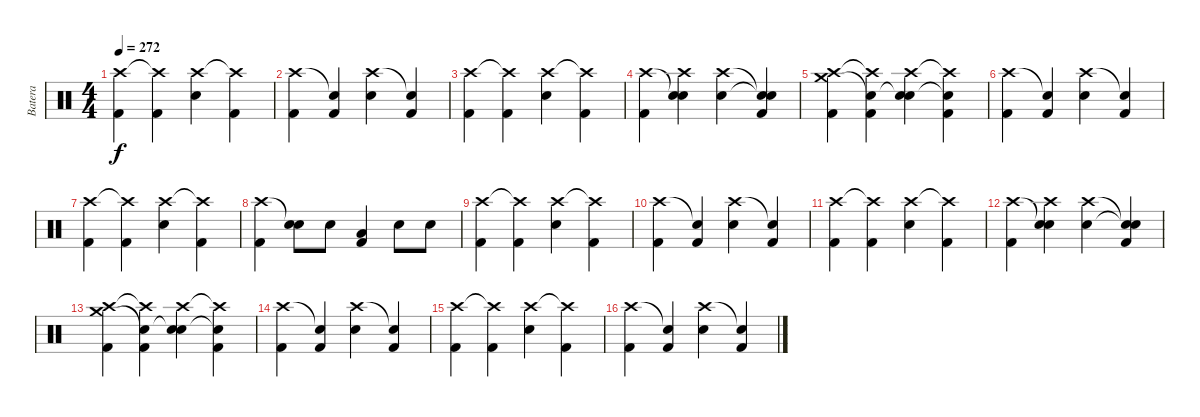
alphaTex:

\track ("Batera" "Batera") {instrument percussion}
\staff {score}
\articulation defaults
\ts (4 4)
\tempo 272
\clef neutral
\ks c
("Crash high (hit)" "Kick (hit) 2").4{dy f} ("Crash high (hit)"{t} "Kick (hit) 2").4 ("Crash high (hit)" "Electric Snare (hit)").4 ("Crash high (hit)"{t} "Kick (hit) 2").4 |
("Crash high (hit)" "Kick (hit) 2").4 ("Snare (hit)"{t} "Kick (hit) 2").4 ("Crash high (hit)" "Electric Snare (hit)").4 ("Snare (hit)"{t} "Kick (hit) 2").4 |
("Crash high (hit)" "Kick (hit) 2").4 ("Crash high (hit)"{t} "Kick (hit) 2").4 ("Crash high (hit)" "Electric Snare (hit)").4 ("Crash high (hit)"{t} "Kick (hit) 2").4 |
("Crash high (hit)" "Kick (hit) 2").4 ("Snare (hit)"{t} "Crash high (hit)" "Electric Snare (hit)").4 ("Crash high (hit)" "Electric Snare (hit)").4 ("Snare (hit)"{t} "Snare (hit)"{t} "Kick (hit) 2").4 |
("Crash high (hit)" "Crash medium (hit)" "Kick (hit) 2").4 ("Crash high (hit)"{t} "Snare (hit)"{t} "Kick (hit) 2").4 ("Crash high (hit)" "Snare (hit)"{t} "Electric Snare (hit)").4 ("Crash high (hit)"{t} "Snare (hit)"{t} "Kick (hit) 2").4 |
("Crash high (hit)" "Kick (hit) 2").4 ("Snare (hit)"{t} "Kick (hit) 2").4 ("Crash high (hit)" "Electric Snare (hit)").4 ("Snare (hit)"{t} "Kick (hit) 2").4 |
("Crash high (hit)" "Kick (hit) 2").4 ("Crash high (hit)"{t} "Kick (hit) 2").4 ("Crash high (hit)" "Electric Snare (hit)").4 ("Crash high (hit)"{t} "Kick (hit) 2").4 |
("Crash high (hit)" "Kick (hit) 2").4 ("Snare (hit)"{t} "Electric Snare (hit)").8 "Electric Snare (hit)".8 ("Low Floor Tom (hit)" "Kick (hit) 2").4 "Electric Snare (hit)".8 "Electric Snare (hit)".8 |
("Crash high (hit)" "Kick (hit) 2").4 ("Crash high (hit)"{t} "Kick (hit) 2").4 ("Crash high (hit)" "Electric Snare (hit)").4 ("Crash high (hit)"{t} "Kick (hit) 2").4 |
("Crash high (hit)" "Kick (hit) 2").4 ("Snare (hit)"{t} "Kick (hit) 2").4 ("Crash high (hit)" "Electric Snare (hit)").4 ("Snare (hit)"{t} "Kick (hit) 2").4 |
("Crash high (hit)" "Kick (hit) 2").4 ("Crash high (hit)"{t} "Kick (hit) 2").4 ("Crash high (hit)" "Electric Snare (hit)").4 ("Crash high (hit)"{t} "Kick (hit) 2").4 |
("Crash high (hit)" "Kick (hit) 2").4 ("Snare (hit)"{t} "Crash high (hit)" "Electric Snare (hit)").4 ("Crash high (hit)" "Electric Snare (hit)").4 ("Snare (hit)"{t} "Snare (hit)"{t} "Kick (hit) 2").4 |
("Crash high (hit)" "Crash medium (hit)" "Kick (hit) 2").4 ("Crash high (hit)"{t} "Snare (hit)"{t} "Kick (hit) 2").4 ("Crash high (hit)" "Snare (hit)"{t} "Electric Snare (hit)").4 ("Crash high (hit)"{t} "Snare (hit)"{t} "Kick (hit) 2").4 |
("Crash high (hit)" "Kick (hit) 2").4 ("Snare (hit)"{t} "Kick (hit) 2").4 ("Crash high (hit)" "Electric Snare (hit)").4 ("Snare (hit)"{t} "Kick (hit) 2").4 |
("Crash high (hit)" "Kick (hit) 2").4 ("Crash high (hit)"{t} "Kick (hit) 2").4 ("Crash high (hit)" "Electric Snare (hit)").4 ("Crash high (hit)"{t} "Kick (hit) 2").4 |
("Crash high (hit)" "Kick (hit) 2").4 ("Snare (hit)"{t} "Kick (hit) 2").4 ("Crash high (hit)" "Electric Snare (hit)").4 ("Snare (hit)"{t} "Kick (hit) 2").4
